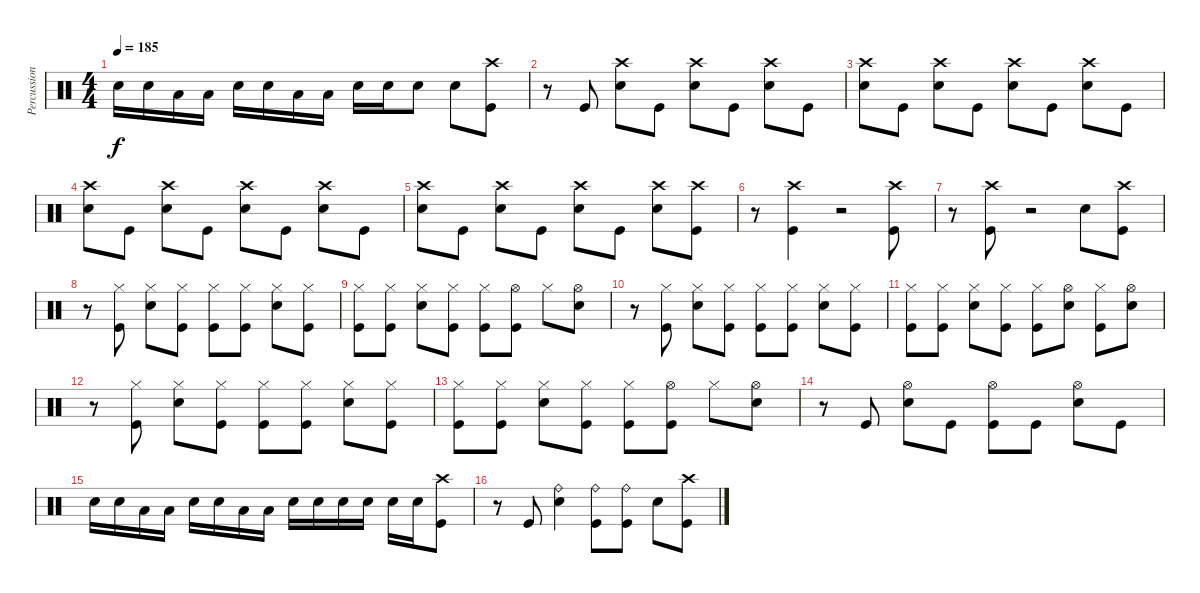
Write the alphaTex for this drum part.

\track ("Percussion" "Percussion") {instrument percussion}
\staff {score}
\articulation defaults
\ts (4 4)
\tempo 185
\clef neutral
\ks c "Snare (hit) 2".16{dy f} "Snare (hit) 2".16 "Low Tom (hit)".16 "Low Tom (hit)".16 "Snare (hit) 2".16 "Snare (hit) 2".16 "Low Tom (hit)".16 "Low Tom (hit)".16 "Snare (hit) 2".16 "Snare (hit) 2".16 "Snare (hit) 2".8 "Snare (hit) 2".8
("Crash high (hit)" "Kick (hit)").8 |
r.8 "Kick (hit)".8 ("Crash high (hit)" "Snare (hit) 2").8 "Kick (hit)".8 ("Crash high (hit)" "Snare (hit) 2").8 "Kick (hit)".8 ("Crash high (hit)" "Snare (hit) 2").8 "Kick (hit)".8 |
("Crash high (hit)" "Snare (hit) 2").8 "Kick (hit)".8 ("Crash high (hit)" "Snare (hit) 2").8 "Kick (hit)".8 ("Crash high (hit)" "Snare (hit) 2").8 "Kick (hit)".8 ("Crash high (hit)" "Snare (hit) 2").8 "Kick (hit)".8 |
("Crash high (hit)" "Snare (hit) 2").8 "Kick (hit)".8 ("Crash high (hit)" "Snare (hit) 2").8 "Kick (hit)".8 ("Crash high (hit)" "Snare (hit) 2").8 "Kick (hit)".8 ("Crash high (hit)" "Snare (hit) 2").8 "Kick (hit)".8 |
("Crash high (hit)" "Snare (hit) 2").8 "Kick (hit)".8 ("Crash high (hit)" "Snare (hit) 2").8 "Kick (hit)".8 ("Crash high (hit)" "Snare (hit) 2").8 "Kick (hit)".8 ("Crash high (hit)" "Snare (hit) 2").8 ("Crash high (hit)" "Kick (hit)").8 |
r.8 ("Crash high (hit)" "Kick (hit)").4 r.2 ("Crash high (hit)" "Kick (hit)").8 |
r.8 ("Crash high (hit)" "Kick (hit)").8 r.2 "Snare (hit) 2".8 ("Crash high (hit)" "Kick (hit)").8 |
r.8 ("Hi-Hat (closed)" "Kick (hit)").8 ("Hi-Hat (closed)" "Snare (hit) 2").8 ("Hi-Hat (closed)" "Kick (hit)").8 ("Hi-Hat (closed)" "Kick (hit)").8 ("Hi-Hat (closed)" "Kick (hit)").8 ("Hi-Hat (closed)" "Snare (hit) 2").8 ("Hi-Hat (closed)" "Kick (hit)").8 |
("Hi-Hat (closed)" "Kick (hit)").8 ("Hi-Hat (closed)" "Kick (hit)").8 ("Hi-Hat (closed)" "Snare (hit) 2").8 ("Hi-Hat (closed)" "Kick (hit)").8 ("Hi-Hat (closed)" "Kick (hit)").8 ("Hi-Hat (open)" "Kick (hit)").8 "Hi-Hat (closed)".8 ("Hi-Hat (open)" "Snare (hit) 2").8 |
r.8 ("Hi-Hat (closed)" "Kick (hit)").8 ("Hi-Hat (closed)" "Snare (hit) 2").8 ("Hi-Hat (closed)" "Kick (hit)").8 ("Hi-Hat (closed)" "Kick (hit)").8 ("Hi-Hat (closed)" "Kick (hit)").8 ("Hi-Hat (closed)" "Snare (hit) 2").8 ("Hi-Hat (closed)" "Kick (hit)").8 |
("Hi-Hat (closed)" "Kick (hit)").8 ("Hi-Hat (closed)" "Kick (hit)").8 ("Hi-Hat (closed)" "Snare (hit) 2").8 ("Hi-Hat (closed)" "Kick (hit)").8 ("Hi-Hat (closed)" "Kick (hit)").8 ("Hi-Hat (open)" "Snare (hit) 2").8 ("Hi-Hat (closed)" "Kick (hit)").8 ("Hi-Hat (open)" "Snare (hit) 2").8 |
r.8 ("Hi-Hat (closed)" "Kick (hit)").8 ("Hi-Hat (closed)" "Snare (hit) 2").8 ("Hi-Hat (closed)" "Kick (hit)").8 ("Hi-Hat (closed)" "Kick (hit)").8 ("Hi-Hat (closed)" "Kick (hit)").8 ("Hi-Hat (closed)" "Snare (hit) 2").8 ("Hi-Hat (closed)" "Kick (hit)").8 |
("Hi-Hat (closed)" "Kick (hit)").8 ("Hi-Hat (closed)" "Kick (hit)").8 ("Hi-Hat (closed)" "Snare (hit) 2").8 ("Hi-Hat (closed)" "Kick (hit)").8 ("Hi-Hat (closed)" "Kick (hit)").8 ("Hi-Hat (open)" "Kick (hit)").8 "Hi-Hat (closed)".8 ("Hi-Hat (open)" "Snare (hit) 2").8 |
r.8 "Kick (hit)".8 ("Hi-Hat (open)" "Snare (hit) 2").8 "Kick (hit)".8 ("Hi-Hat (open)" "Kick (hit)").8 "Kick (hit)".8 ("Hi-Hat (open)" "Snare (hit) 2").8 "Kick (hit)".8 |
"Snare (hit) 2".16 "Snare (hit) 2".16 "Low Tom (hit)".16 "Low Tom (hit)".16 "Snare (hit) 2".16 "Snare (hit) 2".16 "Low Tom (hit)".16 "Low Tom (hit)".16 "Snare (hit) 2".16 "Snare (hit) 2".16 "Snare (hit) 2".16 "Snare (hit) 2".16 "Snare (hit) 2".16 "Snare (hit) 2".16 ("Crash high (hit)" "Kick (hit)").8 |
r.8 "Kick (hit)".8 ("Ride (bell)" "Snare (hit) 2").4 ("Ride (bell)" "Kick (hit)").8 ("Ride (bell)" "Kick (hit)").8 "Snare (hit) 2".8 ("Crash high (hit)" "Kick (hit)").8
